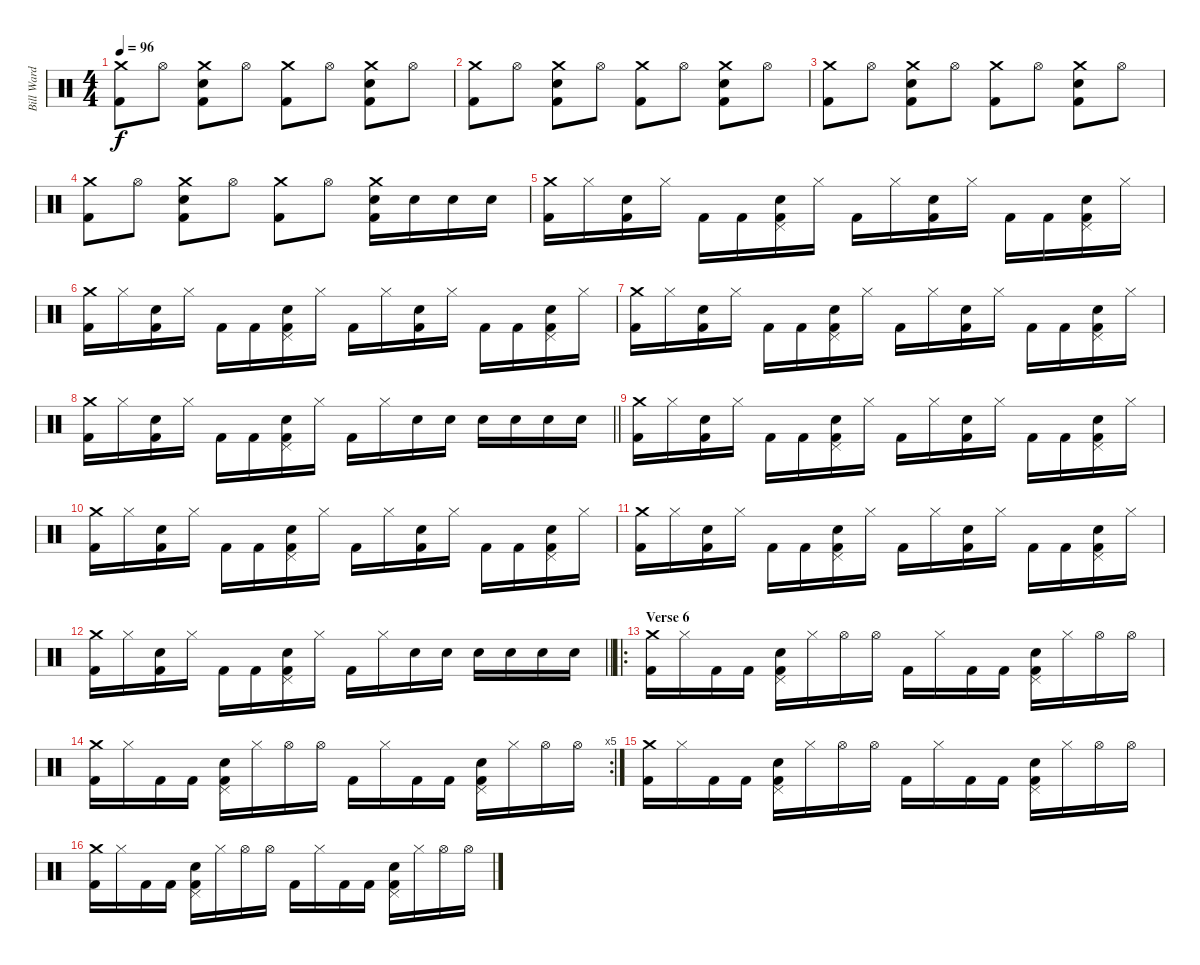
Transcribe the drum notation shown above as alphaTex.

\track ("Bill Ward" "Bill Ward") {instrument percussion}
\staff {score}
\articulation defaults
\ts (4 4)
\tempo 96
\clef neutral
\ks c
("Crash medium (hit)" "Kick (hit) 2").8{dy f} "Hi-Hat (open)".8 ("Crash medium (hit)" "Snare (hit) 2" "Kick (hit) 2").8 "Hi-Hat (open)".8 ("Crash medium (hit)" "Kick (hit) 2").8 "Hi-Hat (open)".8 ("Crash medium (hit)" "Snare (hit) 2" "Kick (hit) 2").8 "Hi-Hat (open)".8 |
("Crash medium (hit)" "Kick (hit) 2").8 "Hi-Hat (open)".8 ("Crash medium (hit)" "Snare (hit) 2" "Kick (hit) 2").8 "Hi-Hat (open)".8 ("Crash medium (hit)" "Kick (hit) 2").8 "Hi-Hat (open)".8 ("Crash medium (hit)" "Snare (hit) 2" "Kick (hit) 2").8 "Hi-Hat (open)".8 |
("Crash medium (hit)" "Kick (hit) 2").8 "Hi-Hat (open)".8 ("Crash medium (hit)" "Snare (hit) 2" "Kick (hit) 2").8 "Hi-Hat (open)".8 ("Crash medium (hit)" "Kick (hit) 2").8 "Hi-Hat (open)".8 ("Crash medium (hit)" "Snare (hit) 2" "Kick (hit) 2").8 "Hi-Hat (open)".8 |
("Crash medium (hit)" "Kick (hit) 2").8 "Hi-Hat (open)".8 ("Crash medium (hit)" "Snare (hit) 2" "Kick (hit) 2").8 "Hi-Hat (open)".8 ("Crash medium (hit)" "Kick (hit) 2").8 "Hi-Hat (open)".8 ("Crash medium (hit)" "Snare (hit) 2" "Kick (hit) 2").16 "Snare (hit) 2".16 "Snare (hit) 2".16 "Snare (hit) 2".16 |
("Crash medium (hit)" "Kick (hit) 2").16 "Hi-Hat (closed)".16 ("Snare (hit) 2" "Kick (hit) 2").16 "Hi-Hat (closed)".16 "Kick (hit) 2".16 "Kick (hit) 2".16 ("Pedal Hi-Hat (hit)" "Snare (hit) 2" "Kick (hit) 2").16 "Hi-Hat (closed)".16 "Kick (hit) 2".16 "Hi-Hat (closed)".16 ("Snare (hit) 2" "Kick (hit) 2").16 "Hi-Hat (closed)".16 "Kick (hit) 2".16 "Kick (hit) 2".16 ("Pedal Hi-Hat (hit)" "Snare (hit) 2" "Kick (hit) 2").16 "Hi-Hat (closed)".16 |
("Crash medium (hit)" "Kick (hit) 2").16 "Hi-Hat (closed)".16 ("Snare (hit) 2" "Kick (hit) 2").16 "Hi-Hat (closed)".16 "Kick (hit) 2".16 "Kick (hit) 2".16 ("Pedal Hi-Hat (hit)" "Snare (hit) 2" "Kick (hit) 2").16 "Hi-Hat (closed)".16 "Kick (hit) 2".16 "Hi-Hat (closed)".16 ("Snare (hit) 2" "Kick (hit) 2").16 "Hi-Hat (closed)".16 "Kick (hit) 2".16 "Kick (hit) 2".16 ("Pedal Hi-Hat (hit)" "Snare (hit) 2" "Kick (hit) 2").16 "Hi-Hat (closed)".16 |
("Crash medium (hit)" "Kick (hit) 2").16 "Hi-Hat (closed)".16 ("Snare (hit) 2" "Kick (hit) 2").16 "Hi-Hat (closed)".16 "Kick (hit) 2".16 "Kick (hit) 2".16 ("Pedal Hi-Hat (hit)" "Snare (hit) 2" "Kick (hit) 2").16 "Hi-Hat (closed)".16 "Kick (hit) 2".16 "Hi-Hat (closed)".16 ("Snare (hit) 2" "Kick (hit) 2").16 "Hi-Hat (closed)".16 "Kick (hit) 2".16 "Kick (hit) 2".16 ("Pedal Hi-Hat (hit)" "Snare (hit) 2" "Kick (hit) 2").16 "Hi-Hat (closed)".16 |
\barLineRight lightlight
("Crash medium (hit)" "Kick (hit) 2").16 "Hi-Hat (closed)".16 ("Snare (hit) 2" "Kick (hit) 2").16 "Hi-Hat (closed)".16 "Kick (hit) 2".16 "Kick (hit) 2".16 ("Pedal Hi-Hat (hit)" "Snare (hit) 2" "Kick (hit) 2").16 "Hi-Hat (closed)".16 "Kick (hit) 2".16 "Hi-Hat (closed)".16 "Snare (hit) 2".16 "Snare (hit) 2".16 "Snare (hit) 2".16 "Snare (hit) 2".16 "Snare (hit) 2".16 "Snare (hit) 2".16 |
("Crash medium (hit)" "Kick (hit) 2").16 "Hi-Hat (closed)".16 ("Snare (hit) 2" "Kick (hit) 2").16 "Hi-Hat (closed)".16 "Kick (hit) 2".16 "Kick (hit) 2".16 ("Pedal Hi-Hat (hit)" "Snare (hit) 2" "Kick (hit) 2").16 "Hi-Hat (closed)".16 "Kick (hit) 2".16 "Hi-Hat (closed)".16 ("Snare (hit) 2" "Kick (hit) 2").16 "Hi-Hat (closed)".16 "Kick (hit) 2".16 "Kick (hit) 2".16 ("Pedal Hi-Hat (hit)" "Snare (hit) 2" "Kick (hit) 2").16 "Hi-Hat (closed)".16 |
("Crash medium (hit)" "Kick (hit) 2").16 "Hi-Hat (closed)".16 ("Snare (hit) 2" "Kick (hit) 2").16 "Hi-Hat (closed)".16 "Kick (hit) 2".16 "Kick (hit) 2".16 ("Pedal Hi-Hat (hit)" "Snare (hit) 2" "Kick (hit) 2").16 "Hi-Hat (closed)".16 "Kick (hit) 2".16 "Hi-Hat (closed)".16 ("Snare (hit) 2" "Kick (hit) 2").16 "Hi-Hat (closed)".16 "Kick (hit) 2".16 "Kick (hit) 2".16 ("Pedal Hi-Hat (hit)" "Snare (hit) 2" "Kick (hit) 2").16 "Hi-Hat (closed)".16 |
("Crash medium (hit)" "Kick (hit) 2").16 "Hi-Hat (closed)".16 ("Snare (hit) 2" "Kick (hit) 2").16 "Hi-Hat (closed)".16 "Kick (hit) 2".16 "Kick (hit) 2".16 ("Pedal Hi-Hat (hit)" "Snare (hit) 2" "Kick (hit) 2").16 "Hi-Hat (closed)".16 "Kick (hit) 2".16 "Hi-Hat (closed)".16 ("Snare (hit) 2" "Kick (hit) 2").16 "Hi-Hat (closed)".16 "Kick (hit) 2".16 "Kick (hit) 2".16 ("Pedal Hi-Hat (hit)" "Snare (hit) 2" "Kick (hit) 2").16 "Hi-Hat (closed)".16 |
\barLineRight lightlight
("Crash medium (hit)" "Kick (hit) 2").16 "Hi-Hat (closed)".16 ("Snare (hit) 2" "Kick (hit) 2").16 "Hi-Hat (closed)".16 "Kick (hit) 2".16 "Kick (hit) 2".16 ("Pedal Hi-Hat (hit)" "Snare (hit) 2" "Kick (hit) 2").16 "Hi-Hat (closed)".16 "Kick (hit) 2".16 "Hi-Hat (closed)".16 "Snare (hit) 2".16 "Snare (hit) 2".16 "Snare (hit) 2".16 "Snare (hit) 2".16 "Snare (hit) 2".16 "Snare (hit) 2".16 |
\ro
\section ("" "Verse 6")
("Crash medium (hit)" "Kick (hit) 2").16 "Hi-Hat (closed)".16 "Kick (hit) 2".16 "Kick (hit) 2".16 ("Pedal Hi-Hat (hit)" "Snare (hit) 2" "Kick (hit) 2").16 "Hi-Hat (closed)".16 "Hi-Hat (open)".16 "Hi-Hat (open)".16 "Kick (hit) 2".16 "Hi-Hat (closed)".16 "Kick (hit) 2".16 "Kick (hit) 2".16 ("Pedal Hi-Hat (hit)" "Snare (hit) 2" "Kick (hit) 2").16 "Hi-Hat (closed)".16 "Hi-Hat (open)".16 "Hi-Hat (open)".16 |
\rc 5
("Crash medium (hit)" "Kick (hit) 2").16 "Hi-Hat (closed)".16 "Kick (hit) 2".16 "Kick (hit) 2".16 ("Pedal Hi-Hat (hit)" "Snare (hit) 2" "Kick (hit) 2").16 "Hi-Hat (closed)".16 "Hi-Hat (open)".16 "Hi-Hat (open)".16 "Kick (hit) 2".16 "Hi-Hat (closed)".16 "Kick (hit) 2".16 "Kick (hit) 2".16 ("Pedal Hi-Hat (hit)" "Snare (hit) 2" "Kick (hit) 2").16 "Hi-Hat (closed)".16 "Hi-Hat (open)".16 "Hi-Hat (open)".16 |
("Crash medium (hit)" "Kick (hit) 2").16 "Hi-Hat (closed)".16 "Kick (hit) 2".16 "Kick (hit) 2".16 ("Pedal Hi-Hat (hit)" "Snare (hit) 2" "Kick (hit) 2").16 "Hi-Hat (closed)".16 "Hi-Hat (open)".16 "Hi-Hat (open)".16 "Kick (hit) 2".16 "Hi-Hat (closed)".16 "Kick (hit) 2".16 "Kick (hit) 2".16 ("Pedal Hi-Hat (hit)" "Snare (hit) 2" "Kick (hit) 2").16 "Hi-Hat (closed)".16 "Hi-Hat (open)".16 "Hi-Hat (open)".16 |
("Crash medium (hit)" "Kick (hit) 2").16 "Hi-Hat (closed)".16 "Kick (hit) 2".16 "Kick (hit) 2".16 ("Pedal Hi-Hat (hit)" "Snare (hit) 2" "Kick (hit) 2").16 "Hi-Hat (closed)".16 "Hi-Hat (open)".16 "Hi-Hat (open)".16 "Kick (hit) 2".16 "Hi-Hat (closed)".16 "Kick (hit) 2".16 "Kick (hit) 2".16 ("Pedal Hi-Hat (hit)" "Snare (hit) 2" "Kick (hit) 2").16 "Hi-Hat (closed)".16 "Hi-Hat (open)".16 "Hi-Hat (open)".16
